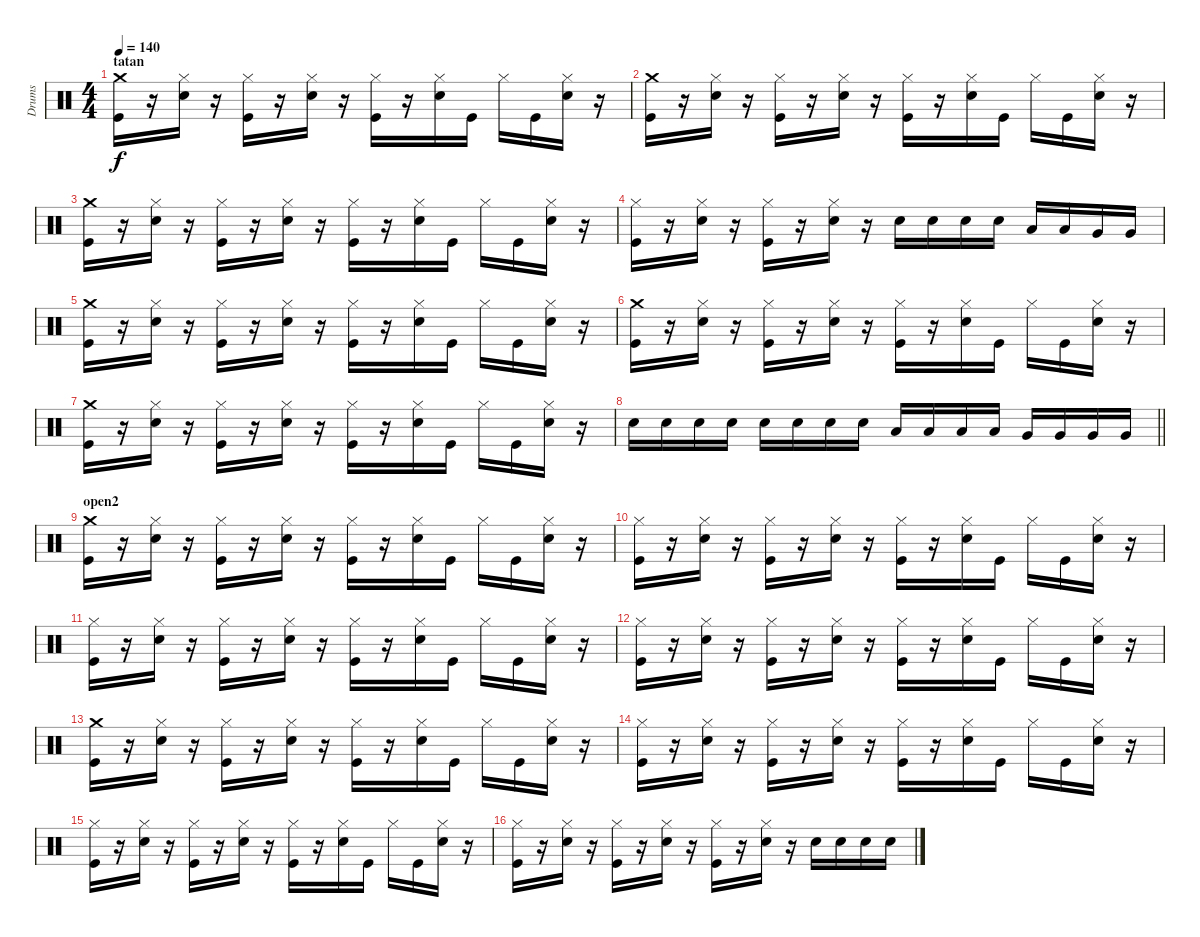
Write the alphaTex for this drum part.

\track ("Drums" "Drums") {instrument percussion}
\staff {score}
\articulation defaults
\ts (4 4)
\section ("" "tatan")
\tempo 140
\clef neutral
\ks c
("Crash medium (hit)" "Kick (hit)").16{dy f} r.16 ("Hi-Hat (closed)" "Snare (hit) 2").16 r.16 ("Hi-Hat (closed)" "Kick (hit)").16 r.16 ("Hi-Hat (closed)" "Snare (hit) 2").16 r.16 ("Hi-Hat (closed)" "Kick (hit)").16 r.16 ("Hi-Hat (closed)" "Snare (hit) 2").16 "Kick (hit)".16 "Hi-Hat (closed)".16 "Kick (hit)".16 ("Hi-Hat (closed)" "Snare (hit) 2").16 r.16 |
("Crash medium (hit)" "Kick (hit)").16 r.16 ("Hi-Hat (closed)" "Snare (hit) 2").16 r.16 ("Hi-Hat (closed)" "Kick (hit)").16 r.16 ("Hi-Hat (closed)" "Snare (hit) 2").16 r.16 ("Hi-Hat (closed)" "Kick (hit)").16 r.16 ("Hi-Hat (closed)" "Snare (hit) 2").16 "Kick (hit)".16 "Hi-Hat (closed)".16 "Kick (hit)".16 ("Hi-Hat (closed)" "Snare (hit) 2").16 r.16 |
("Crash medium (hit)" "Kick (hit)").16 r.16 ("Hi-Hat (closed)" "Snare (hit) 2").16 r.16 ("Hi-Hat (closed)" "Kick (hit)").16 r.16 ("Hi-Hat (closed)" "Snare (hit) 2").16 r.16 ("Hi-Hat (closed)" "Kick (hit)").16 r.16 ("Hi-Hat (closed)" "Snare (hit) 2").16 "Kick (hit)".16 "Hi-Hat (closed)".16 "Kick (hit)".16 ("Hi-Hat (closed)" "Snare (hit) 2").16 r.16 |
("Hi-Hat (closed)" "Kick (hit)").16 r.16 ("Hi-Hat (closed)" "Snare (hit) 2").16 r.16 ("Hi-Hat (closed)" "Kick (hit)").16 r.16 ("Hi-Hat (closed)" "Snare (hit) 2").16 r.16 "Snare (hit) 2".16 "Snare (hit) 2".16 "Snare (hit) 2".16 "Snare (hit) 2".16 "Low Tom (hit)".16 "Low Tom (hit)".16 "Very Low Tom (hit)".16 "Very Low Tom (hit)".16 |
("Crash medium (hit)" "Kick (hit)").16 r.16 ("Hi-Hat (closed)" "Snare (hit) 2").16 r.16 ("Hi-Hat (closed)" "Kick (hit)").16 r.16 ("Hi-Hat (closed)" "Snare (hit) 2").16 r.16 ("Hi-Hat (closed)" "Kick (hit)").16 r.16 ("Hi-Hat (closed)" "Snare (hit) 2").16 "Kick (hit)".16 "Hi-Hat (closed)".16 "Kick (hit)".16 ("Hi-Hat (closed)" "Snare (hit) 2").16 r.16 |
("Crash medium (hit)" "Kick (hit)").16 r.16 ("Hi-Hat (closed)" "Snare (hit) 2").16 r.16 ("Hi-Hat (closed)" "Kick (hit)").16 r.16 ("Hi-Hat (closed)" "Snare (hit) 2").16 r.16 ("Hi-Hat (closed)" "Kick (hit)").16 r.16 ("Hi-Hat (closed)" "Snare (hit) 2").16 "Kick (hit)".16 "Hi-Hat (closed)".16 "Kick (hit)".16 ("Hi-Hat (closed)" "Snare (hit) 2").16 r.16 |
("Crash medium (hit)" "Kick (hit)").16 r.16 ("Hi-Hat (closed)" "Snare (hit) 2").16 r.16 ("Hi-Hat (closed)" "Kick (hit)").16 r.16 ("Hi-Hat (closed)" "Snare (hit) 2").16 r.16 ("Hi-Hat (closed)" "Kick (hit)").16 r.16 ("Hi-Hat (closed)" "Snare (hit) 2").16 "Kick (hit)".16 "Hi-Hat (closed)".16 "Kick (hit)".16 ("Hi-Hat (closed)" "Snare (hit) 2").16 r.16 |
\barLineRight lightlight "Snare (hit) 2".16 "Snare (hit) 2".16 "Snare (hit) 2".16 "Snare (hit) 2".16 "Snare (hit) 2".16 "Snare (hit) 2".16 "Snare (hit) 2".16 "Snare (hit) 2".16 "Low Tom (hit)".16 "Low Tom (hit)".16 "Low Tom (hit)".16 "Low Tom (hit)".16 "Very Low Tom (hit)".16 "Very Low Tom (hit)".16 "Very Low Tom (hit)".16 "Very Low Tom (hit)".16
|
\section ("" "open2")
("Crash medium (hit)" "Kick (hit)").16 r.16 ("Hi-Hat (closed)" "Snare (hit) 2").16 r.16 ("Hi-Hat (closed)" "Kick (hit)").16 r.16 ("Hi-Hat (closed)" "Snare (hit) 2").16 r.16 ("Hi-Hat (closed)" "Kick (hit)").16 r.16 ("Hi-Hat (closed)" "Snare (hit) 2").16 "Kick (hit)".16 "Hi-Hat (closed)".16 "Kick (hit)".16 ("Hi-Hat (closed)" "Snare (hit) 2").16 r.16 |
("Hi-Hat (closed)" "Kick (hit)").16 r.16 ("Hi-Hat (closed)" "Snare (hit) 2").16 r.16 ("Hi-Hat (closed)" "Kick (hit)").16 r.16 ("Hi-Hat (closed)" "Snare (hit) 2").16 r.16 ("Hi-Hat (closed)" "Kick (hit)").16 r.16 ("Hi-Hat (closed)" "Snare (hit) 2").16 "Kick (hit)".16 "Hi-Hat (closed)".16 "Kick (hit)".16 ("Hi-Hat (closed)" "Snare (hit) 2").16 r.16 |
("Hi-Hat (closed)" "Kick (hit)").16 r.16 ("Hi-Hat (closed)" "Snare (hit) 2").16 r.16 ("Hi-Hat (closed)" "Kick (hit)").16 r.16 ("Hi-Hat (closed)" "Snare (hit) 2").16 r.16 ("Hi-Hat (closed)" "Kick (hit)").16 r.16 ("Hi-Hat (closed)" "Snare (hit) 2").16 "Kick (hit)".16 "Hi-Hat (closed)".16 "Kick (hit)".16 ("Hi-Hat (closed)" "Snare (hit) 2").16 r.16 |
("Hi-Hat (closed)" "Kick (hit)").16 r.16 ("Hi-Hat (closed)" "Snare (hit) 2").16 r.16 ("Hi-Hat (closed)" "Kick (hit)").16 r.16 ("Hi-Hat (closed)" "Snare (hit) 2").16 r.16 ("Hi-Hat (closed)" "Kick (hit)").16 r.16 ("Hi-Hat (closed)" "Snare (hit) 2").16 "Kick (hit)".16 "Hi-Hat (closed)".16 "Kick (hit)".16 ("Hi-Hat (closed)" "Snare (hit) 2").16 r.16 |
("Crash medium (hit)" "Kick (hit)").16 r.16 ("Hi-Hat (closed)" "Snare (hit) 2").16 r.16 ("Hi-Hat (closed)" "Kick (hit)").16 r.16 ("Hi-Hat (closed)" "Snare (hit) 2").16 r.16 ("Hi-Hat (closed)" "Kick (hit)").16 r.16 ("Hi-Hat (closed)" "Snare (hit) 2").16 "Kick (hit)".16 "Hi-Hat (closed)".16 "Kick (hit)".16 ("Hi-Hat (closed)" "Snare (hit) 2").16 r.16 |
("Hi-Hat (closed)" "Kick (hit)").16 r.16 ("Hi-Hat (closed)" "Snare (hit) 2").16 r.16 ("Hi-Hat (closed)" "Kick (hit)").16 r.16 ("Hi-Hat (closed)" "Snare (hit) 2").16 r.16 ("Hi-Hat (closed)" "Kick (hit)").16 r.16 ("Hi-Hat (closed)" "Snare (hit) 2").16 "Kick (hit)".16 "Hi-Hat (closed)".16 "Kick (hit)".16 ("Hi-Hat (closed)" "Snare (hit) 2").16 r.16 |
("Hi-Hat (closed)" "Kick (hit)").16 r.16 ("Hi-Hat (closed)" "Snare (hit) 2").16 r.16 ("Hi-Hat (closed)" "Kick (hit)").16 r.16 ("Hi-Hat (closed)" "Snare (hit) 2").16 r.16 ("Hi-Hat (closed)" "Kick (hit)").16 r.16 ("Hi-Hat (closed)" "Snare (hit) 2").16 "Kick (hit)".16 "Hi-Hat (closed)".16 "Kick (hit)".16 ("Hi-Hat (closed)" "Snare (hit) 2").16 r.16 |
("Hi-Hat (closed)" "Kick (hit)").16 r.16 ("Hi-Hat (closed)" "Snare (hit) 2").16 r.16 ("Hi-Hat (closed)" "Kick (hit)").16 r.16 ("Hi-Hat (closed)" "Snare (hit) 2").16 r.16 ("Hi-Hat (closed)" "Kick (hit)").16 r.16 ("Hi-Hat (closed)" "Snare (hit) 2").16 r.16 "Snare (hit) 2".16 "Snare (hit) 2".16 "Snare (hit) 2".16 "Snare (hit) 2".16
